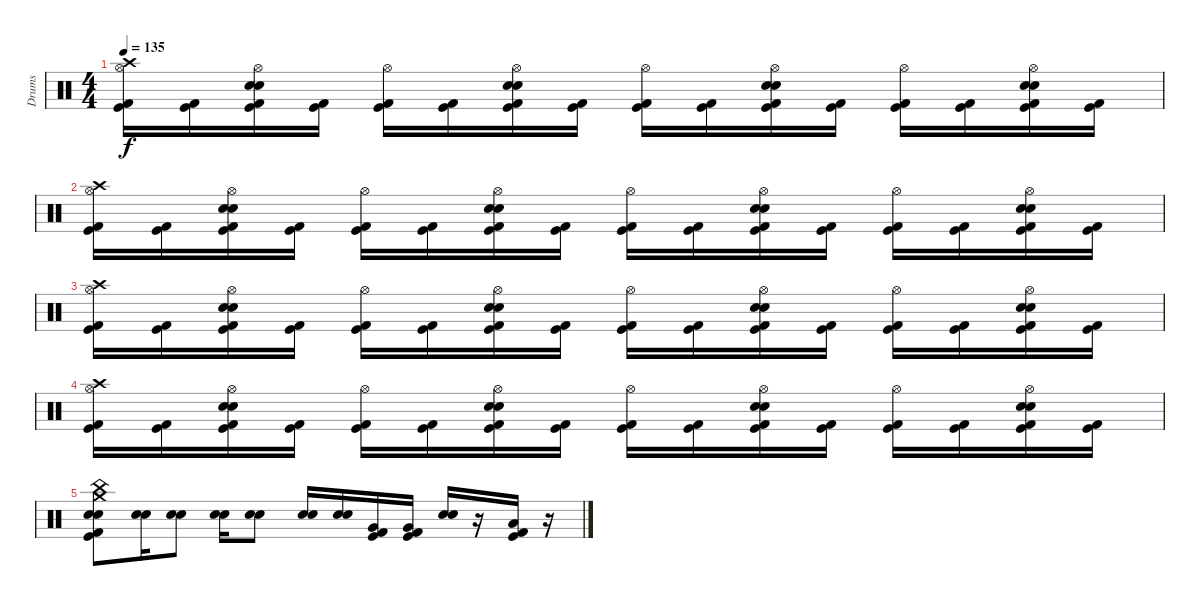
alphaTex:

\track ("Drums" "Drums") {instrument percussion}
\staff {score}
\articulation defaults
\ts (4 4)
\tempo 135
\clef neutral
\ks c
("Crash high (hit)" "Hi-Hat (open)" "Kick (hit) 2" "Kick (hit)").16{dy f} ("Kick (hit) 2" "Kick (hit)").16 ("Hi-Hat (open)" "Snare (hit) 2" "Electric Snare (hit)" "Kick (hit) 2" "Kick (hit)").16 ("Kick (hit) 2" "Kick (hit)").16 ("Hi-Hat (open)" "Kick (hit) 2" "Kick (hit)").16 ("Kick (hit) 2" "Kick (hit)").16 ("Hi-Hat (open)" "Snare (hit) 2" "Electric Snare (hit)" "Kick (hit) 2" "Kick (hit)").16 ("Kick (hit) 2" "Kick (hit)").16 ("Hi-Hat (open)" "Kick (hit) 2" "Kick (hit)").16 ("Kick (hit) 2" "Kick (hit)").16 ("Hi-Hat (open)" "Snare (hit) 2" "Electric Snare (hit)" "Kick (hit) 2" "Kick (hit)").16 ("Kick (hit) 2" "Kick (hit)").16 ("Hi-Hat (open)" "Kick (hit) 2" "Kick (hit)").16 ("Kick (hit) 2" "Kick (hit)").16 ("Hi-Hat (open)" "Snare (hit) 2" "Electric Snare (hit)" "Kick (hit) 2" "Kick (hit)").16 ("Kick (hit) 2" "Kick (hit)").16 |
("Crash high (hit)" "Hi-Hat (open)" "Kick (hit) 2" "Kick (hit)").16 ("Kick (hit) 2" "Kick (hit)").16 ("Hi-Hat (open)" "Snare (hit) 2" "Electric Snare (hit)" "Kick (hit) 2" "Kick (hit)").16 ("Kick (hit) 2" "Kick (hit)").16 ("Hi-Hat (open)" "Kick (hit) 2" "Kick (hit)").16 ("Kick (hit) 2" "Kick (hit)").16 ("Hi-Hat (open)" "Snare (hit) 2" "Electric Snare (hit)" "Kick (hit) 2" "Kick (hit)").16 ("Kick (hit) 2" "Kick (hit)").16 ("Hi-Hat (open)" "Kick (hit) 2" "Kick (hit)").16 ("Kick (hit) 2" "Kick (hit)").16 ("Hi-Hat (open)" "Snare (hit) 2" "Electric Snare (hit)" "Kick (hit) 2" "Kick (hit)").16 ("Kick (hit) 2" "Kick (hit)").16 ("Hi-Hat (open)" "Kick (hit) 2" "Kick (hit)").16 ("Kick (hit) 2" "Kick (hit)").16 ("Hi-Hat (open)" "Snare (hit) 2" "Electric Snare (hit)" "Kick (hit) 2" "Kick (hit)").16 ("Kick (hit) 2" "Kick (hit)").16 |
("Crash high (hit)" "Hi-Hat (open)" "Kick (hit) 2" "Kick (hit)").16 ("Kick (hit) 2" "Kick (hit)").16 ("Hi-Hat (open)" "Snare (hit) 2" "Electric Snare (hit)" "Kick (hit) 2" "Kick (hit)").16 ("Kick (hit) 2" "Kick (hit)").16 ("Hi-Hat (open)" "Kick (hit) 2" "Kick (hit)").16 ("Kick (hit) 2" "Kick (hit)").16 ("Hi-Hat (open)" "Snare (hit) 2" "Electric Snare (hit)" "Kick (hit) 2" "Kick (hit)").16 ("Kick (hit) 2" "Kick (hit)").16 ("Hi-Hat (open)" "Kick (hit) 2" "Kick (hit)").16 ("Kick (hit) 2" "Kick (hit)").16 ("Hi-Hat (open)" "Snare (hit) 2" "Electric Snare (hit)" "Kick (hit) 2" "Kick (hit)").16 ("Kick (hit) 2" "Kick (hit)").16 ("Hi-Hat (open)" "Kick (hit) 2" "Kick (hit)").16 ("Kick (hit) 2" "Kick (hit)").16 ("Hi-Hat (open)" "Snare (hit) 2" "Electric Snare (hit)" "Kick (hit) 2" "Kick (hit)").16 ("Kick (hit) 2" "Kick (hit)").16 |
("Crash high (hit)" "Hi-Hat (open)" "Kick (hit) 2" "Kick (hit)").16 ("Kick (hit) 2" "Kick (hit)").16 ("Hi-Hat (open)" "Snare (hit) 2" "Electric Snare (hit)" "Kick (hit) 2" "Kick (hit)").16 ("Kick (hit) 2" "Kick (hit)").16 ("Hi-Hat (open)" "Kick (hit) 2" "Kick (hit)").16 ("Kick (hit) 2" "Kick (hit)").16 ("Hi-Hat (open)" "Snare (hit) 2" "Electric Snare (hit)" "Kick (hit) 2" "Kick (hit)").16 ("Kick (hit) 2" "Kick (hit)").16 ("Hi-Hat (open)" "Kick (hit) 2" "Kick (hit)").16 ("Kick (hit) 2" "Kick (hit)").16 ("Hi-Hat (open)" "Snare (hit) 2" "Electric Snare (hit)" "Kick (hit) 2" "Kick (hit)").16 ("Kick (hit) 2" "Kick (hit)").16 ("Hi-Hat (open)" "Kick (hit) 2" "Kick (hit)").16 ("Kick (hit) 2" "Kick (hit)").16 ("Hi-Hat (open)" "Snare (hit) 2" "Electric Snare (hit)" "Kick (hit) 2" "Kick (hit)").16 ("Kick (hit) 2" "Kick (hit)").16 |
("China (hit)" "Crash medium (hit)" "Electric Snare (hit)" "Snare (hit) 2" "Kick (hit) 2" "Kick (hit)").8 ("Electric Snare (hit)" "Snare (hit) 2").16 ("Electric Snare (hit)" "Snare (hit) 2").8 ("Electric Snare (hit)" "Snare (hit) 2").16 ("Electric Snare (hit)" "Snare (hit) 2").8 ("Electric Snare (hit)" "Snare (hit) 2").16 ("Electric Snare (hit)" "Snare (hit) 2").16 ("Very Low Tom (hit)" "Kick (hit) 2" "Kick (hit)").16 ("Very Low Tom (hit)" "Kick (hit) 2" "Kick (hit)").16 ("Electric Snare (hit)" "Snare (hit) 2").16 r.16 ("Low Tom (hit)" "Kick (hit) 2" "Kick (hit)").16 r.16
